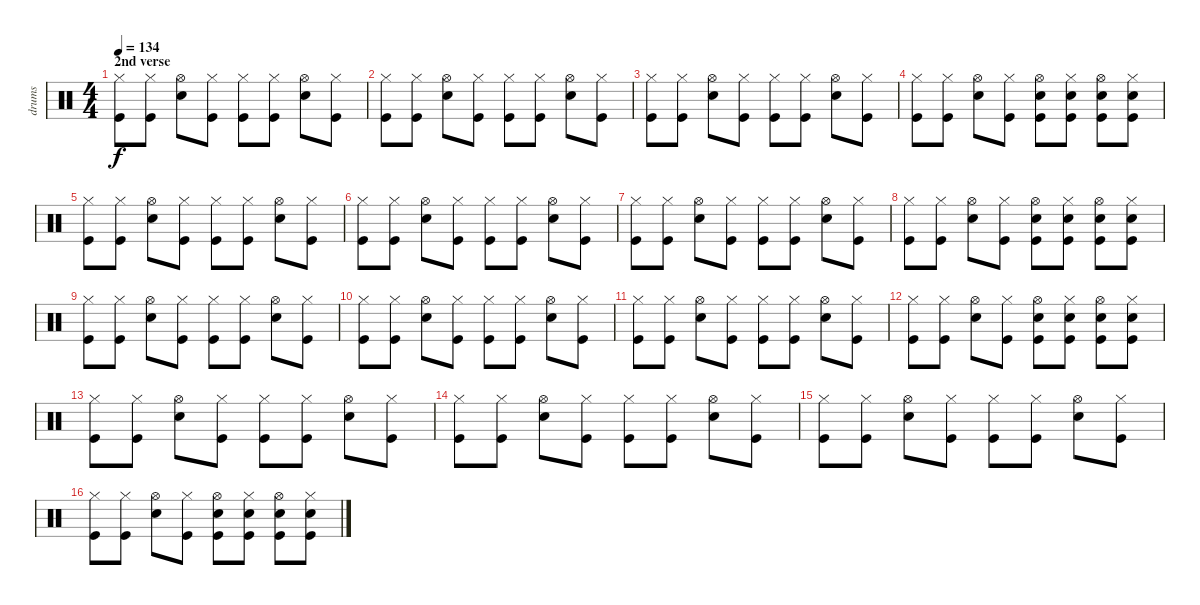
\track ("drums" "drums") {instrument percussion}
\staff {score}
\articulation defaults
\ts (4 4)
\section ("" "2nd verse")
\tempo 134
\clef neutral
\ks c
("Kick (hit)" "Hi-Hat (closed)").8{dy f volume 11} ("Kick (hit)" "Hi-Hat (closed)").8 ("Electric Snare (hit)" "Hi-Hat (open)").8 ("Kick (hit)" "Hi-Hat (closed)").8 ("Kick (hit)" "Hi-Hat (closed)").8 ("Kick (hit)" "Hi-Hat (closed)").8 ("Electric Snare (hit)" "Hi-Hat (open)").8 ("Kick (hit)" "Hi-Hat (closed)").8 |
("Kick (hit)" "Hi-Hat (closed)").8 ("Kick (hit)" "Hi-Hat (closed)").8 ("Electric Snare (hit)" "Hi-Hat (open)").8 ("Kick (hit)" "Hi-Hat (closed)").8 ("Kick (hit)" "Hi-Hat (closed)").8 ("Kick (hit)" "Hi-Hat (closed)").8 ("Electric Snare (hit)" "Hi-Hat (open)").8 ("Kick (hit)" "Hi-Hat (closed)").8 |
("Kick (hit)" "Hi-Hat (closed)").8 ("Kick (hit)" "Hi-Hat (closed)").8 ("Electric Snare (hit)" "Hi-Hat (open)").8 ("Kick (hit)" "Hi-Hat (closed)").8 ("Kick (hit)" "Hi-Hat (closed)").8 ("Kick (hit)" "Hi-Hat (closed)").8 ("Electric Snare (hit)" "Hi-Hat (open)").8 ("Kick (hit)" "Hi-Hat (closed)").8 |
("Kick (hit)" "Hi-Hat (closed)").8 ("Kick (hit)" "Hi-Hat (closed)").8 ("Electric Snare (hit)" "Hi-Hat (open)").8 ("Kick (hit)" "Hi-Hat (closed)").8 ("Electric Snare (hit)" "Hi-Hat (open)" "Kick (hit)").8 ("Electric Snare (hit)" "Hi-Hat (closed)" "Kick (hit)").8 ("Electric Snare (hit)" "Hi-Hat (open)" "Kick (hit)").8 ("Electric Snare (hit)" "Hi-Hat (closed)" "Kick (hit)").8 |
\section ("" "")
("Kick (hit)" "Hi-Hat (closed)").8 ("Kick (hit)" "Hi-Hat (closed)").8 ("Electric Snare (hit)" "Hi-Hat (open)").8 ("Kick (hit)" "Hi-Hat (closed)").8 ("Kick (hit)" "Hi-Hat (closed)").8 ("Kick (hit)" "Hi-Hat (closed)").8 ("Electric Snare (hit)" "Hi-Hat (open)").8 ("Kick (hit)" "Hi-Hat (closed)").8 |
("Kick (hit)" "Hi-Hat (closed)").8 ("Kick (hit)" "Hi-Hat (closed)").8 ("Electric Snare (hit)" "Hi-Hat (open)").8 ("Kick (hit)" "Hi-Hat (closed)").8 ("Kick (hit)" "Hi-Hat (closed)").8 ("Kick (hit)" "Hi-Hat (closed)").8 ("Electric Snare (hit)" "Hi-Hat (open)").8 ("Kick (hit)" "Hi-Hat (closed)").8 |
("Kick (hit)" "Hi-Hat (closed)").8 ("Kick (hit)" "Hi-Hat (closed)").8 ("Electric Snare (hit)" "Hi-Hat (open)").8 ("Kick (hit)" "Hi-Hat (closed)").8 ("Kick (hit)" "Hi-Hat (closed)").8 ("Kick (hit)" "Hi-Hat (closed)").8 ("Electric Snare (hit)" "Hi-Hat (open)").8 ("Kick (hit)" "Hi-Hat (closed)").8 |
("Kick (hit)" "Hi-Hat (closed)").8 ("Kick (hit)" "Hi-Hat (closed)").8 ("Electric Snare (hit)" "Hi-Hat (open)").8 ("Kick (hit)" "Hi-Hat (closed)").8 ("Electric Snare (hit)" "Hi-Hat (open)" "Kick (hit)").8 ("Electric Snare (hit)" "Hi-Hat (closed)" "Kick (hit)").8 ("Electric Snare (hit)" "Hi-Hat (open)" "Kick (hit)").8 ("Electric Snare (hit)" "Hi-Hat (closed)" "Kick (hit)").8 |
\section ("" "")
("Kick (hit)" "Hi-Hat (closed)").8 ("Kick (hit)" "Hi-Hat (closed)").8 ("Electric Snare (hit)" "Hi-Hat (open)").8 ("Kick (hit)" "Hi-Hat (closed)").8 ("Kick (hit)" "Hi-Hat (closed)").8 ("Kick (hit)" "Hi-Hat (closed)").8 ("Electric Snare (hit)" "Hi-Hat (open)").8 ("Kick (hit)" "Hi-Hat (closed)").8 |
("Kick (hit)" "Hi-Hat (closed)").8 ("Kick (hit)" "Hi-Hat (closed)").8 ("Electric Snare (hit)" "Hi-Hat (open)").8 ("Kick (hit)" "Hi-Hat (closed)").8 ("Kick (hit)" "Hi-Hat (closed)").8 ("Kick (hit)" "Hi-Hat (closed)").8 ("Electric Snare (hit)" "Hi-Hat (open)").8 ("Kick (hit)" "Hi-Hat (closed)").8 |
("Kick (hit)" "Hi-Hat (closed)").8 ("Kick (hit)" "Hi-Hat (closed)").8 ("Electric Snare (hit)" "Hi-Hat (open)").8 ("Kick (hit)" "Hi-Hat (closed)").8 ("Kick (hit)" "Hi-Hat (closed)").8 ("Kick (hit)" "Hi-Hat (closed)").8 ("Electric Snare (hit)" "Hi-Hat (open)").8 ("Kick (hit)" "Hi-Hat (closed)").8 |
("Kick (hit)" "Hi-Hat (closed)").8 ("Kick (hit)" "Hi-Hat (closed)").8 ("Electric Snare (hit)" "Hi-Hat (open)").8 ("Kick (hit)" "Hi-Hat (closed)").8 ("Electric Snare (hit)" "Hi-Hat (open)" "Kick (hit)").8 ("Electric Snare (hit)" "Hi-Hat (closed)" "Kick (hit)").8 ("Electric Snare (hit)" "Hi-Hat (open)" "Kick (hit)").8 ("Electric Snare (hit)" "Hi-Hat (closed)" "Kick (hit)").8 |
\section ("" "")
("Kick (hit)" "Hi-Hat (closed)").8 ("Kick (hit)" "Hi-Hat (closed)").8 ("Electric Snare (hit)" "Hi-Hat (open)").8 ("Kick (hit)" "Hi-Hat (closed)").8 ("Kick (hit)" "Hi-Hat (closed)").8 ("Kick (hit)" "Hi-Hat (closed)").8 ("Electric Snare (hit)" "Hi-Hat (open)").8 ("Kick (hit)" "Hi-Hat (closed)").8 |
("Kick (hit)" "Hi-Hat (closed)").8 ("Kick (hit)" "Hi-Hat (closed)").8 ("Electric Snare (hit)" "Hi-Hat (open)").8 ("Kick (hit)" "Hi-Hat (closed)").8 ("Kick (hit)" "Hi-Hat (closed)").8 ("Kick (hit)" "Hi-Hat (closed)").8 ("Electric Snare (hit)" "Hi-Hat (open)").8 ("Kick (hit)" "Hi-Hat (closed)").8 |
("Kick (hit)" "Hi-Hat (closed)").8 ("Kick (hit)" "Hi-Hat (closed)").8 ("Electric Snare (hit)" "Hi-Hat (open)").8 ("Kick (hit)" "Hi-Hat (closed)").8 ("Kick (hit)" "Hi-Hat (closed)").8 ("Kick (hit)" "Hi-Hat (closed)").8 ("Electric Snare (hit)" "Hi-Hat (open)").8 ("Kick (hit)" "Hi-Hat (closed)").8 |
("Kick (hit)" "Hi-Hat (closed)").8 ("Kick (hit)" "Hi-Hat (closed)").8 ("Electric Snare (hit)" "Hi-Hat (open)").8 ("Kick (hit)" "Hi-Hat (closed)").8 ("Electric Snare (hit)" "Hi-Hat (open)" "Kick (hit)").8 ("Electric Snare (hit)" "Hi-Hat (closed)" "Kick (hit)").8 ("Electric Snare (hit)" "Hi-Hat (open)" "Kick (hit)").8 ("Electric Snare (hit)" "Hi-Hat (closed)" "Kick (hit)").8
